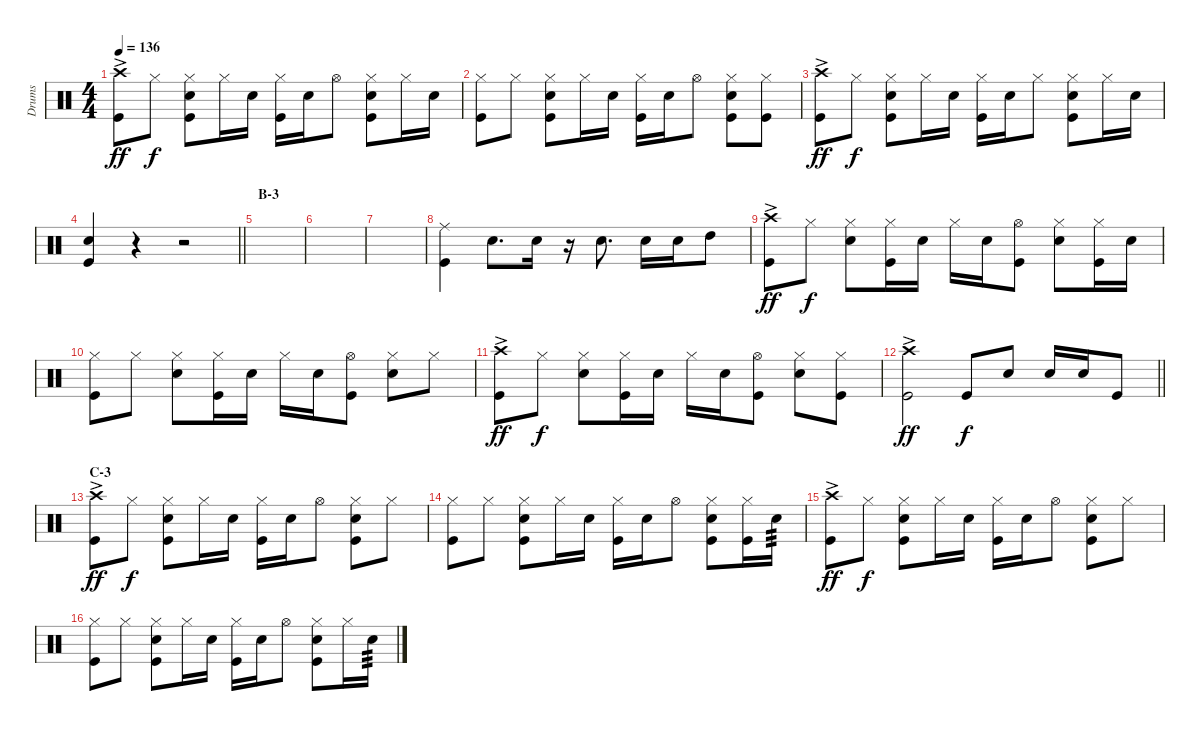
\track ("Drums" "Drums") {instrument percussion}
\staff {score}
\articulation defaults
\ts (4 4)
\tempo 136
\clef neutral
\ks c
("Crash high (hit)"{ac} "Kick (hit)").8{dy ff} "Hi-Hat (closed)".8{dy f} ("Hi-Hat (closed)" "Snare (hit) 2" "Kick (hit)").8 "Hi-Hat (closed)".16 "Snare (hit) 2".16 ("Hi-Hat (closed)" "Kick (hit)").16 "Snare (hit) 2".16 "Hi-Hat (open)".8 ("Hi-Hat (closed)" "Snare (hit) 2" "Kick (hit)").8 "Hi-Hat (closed)".16 "Snare (hit) 2".16 |
("Hi-Hat (closed)" "Kick (hit)").8 "Hi-Hat (closed)".8 ("Hi-Hat (closed)" "Snare (hit) 2" "Kick (hit)").8 "Hi-Hat (closed)".16 "Snare (hit) 2".16 ("Hi-Hat (closed)" "Kick (hit)").16 "Snare (hit) 2".16 "Hi-Hat (open)".8 ("Hi-Hat (closed)" "Snare (hit) 2" "Kick (hit)").8 ("Hi-Hat (closed)" "Kick (hit)").8 |
("Crash high (hit)"{ac} "Kick (hit)").8{dy ff} "Hi-Hat (closed)".8{dy f} ("Hi-Hat (closed)" "Snare (hit) 2" "Kick (hit)").8 "Hi-Hat (closed)".16 "Snare (hit) 2".16 ("Hi-Hat (closed)" "Kick (hit)").16 "Snare (hit) 2".16 "Hi-Hat (closed)".8 ("Hi-Hat (closed)" "Snare (hit) 2" "Kick (hit)").8 "Hi-Hat (closed)".16 "Snare (hit) 2".16 |
\barLineRight lightlight
("Snare (hit) 2" "Kick (hit)").4 r.4 r.2 |
\section ("" "B-3")
|
|
|
("Ride (middle)" "Kick (hit)").4 "Snare (hit) 2".8{d} "Snare (hit) 2".16 r.16 "Snare (hit) 2".8{d} "Snare (hit) 2".16 "Snare (hit) 2".16 "High Tom (hit)".8 |
("Crash high (hit)"{ac} "Kick (hit)").8{dy ff} "Hi-Hat (closed)".8{dy f} ("Hi-Hat (closed)" "Snare (hit) 2").8 ("Hi-Hat (closed)" "Kick (hit)").16 "Snare (hit) 2".16 "Hi-Hat (closed)".16 "Snare (hit) 2".16 ("Hi-Hat (open)" "Kick (hit)").8 ("Hi-Hat (closed)" "Snare (hit) 2").8 ("Hi-Hat (closed)" "Kick (hit)").16 "Snare (hit) 2".16 |
("Hi-Hat (closed)" "Kick (hit)").8 "Hi-Hat (closed)".8 ("Hi-Hat (closed)" "Snare (hit) 2").8 ("Hi-Hat (closed)" "Kick (hit)").16 "Snare (hit) 2".16 "Hi-Hat (closed)".16 "Snare (hit) 2".16 ("Hi-Hat (open)" "Kick (hit)").8 ("Hi-Hat (closed)" "Snare (hit) 2").8 "Hi-Hat (closed)".8 |
("Crash high (hit)"{ac} "Kick (hit)").8{dy ff} "Hi-Hat (closed)".8{dy f} ("Hi-Hat (closed)" "Snare (hit) 2").8 ("Hi-Hat (closed)" "Kick (hit)").16 "Snare (hit) 2".16 "Hi-Hat (closed)".16 "Snare (hit) 2".16 ("Hi-Hat (open)" "Kick (hit)").8 ("Hi-Hat (closed)" "Snare (hit) 2").8 ("Hi-Hat (closed)" "Kick (hit)").8 |
\barLineRight lightlight
("Crash high (hit)"{ac} "Kick (hit)").2{dy ff} "Kick (hit)".8{dy f} "Snare (hit) 2".8 "Snare (hit) 2".16 "Snare (hit) 2".16 "Kick (hit)".8 |
\section ("" "C-3")
("Crash high (hit)"{ac} "Kick (hit)").8{dy ff} "Hi-Hat (closed)".8{dy f} ("Hi-Hat (closed)" "Snare (hit) 2" "Kick (hit)").8 "Hi-Hat (closed)".16 "Snare (hit) 2".16 ("Hi-Hat (closed)" "Kick (hit)").16 "Snare (hit) 2".16 "Hi-Hat (open)".8 ("Hi-Hat (closed)" "Snare (hit) 2" "Kick (hit)").8 "Hi-Hat (closed)".8 |
("Hi-Hat (closed)" "Kick (hit)").8 "Hi-Hat (closed)".8 ("Hi-Hat (closed)" "Snare (hit) 2" "Kick (hit)").8 "Hi-Hat (closed)".16 "Snare (hit) 2".16 ("Hi-Hat (closed)" "Kick (hit)").16 "Snare (hit) 2".16 "Hi-Hat (open)".8 ("Hi-Hat (closed)" "Snare (hit) 2" "Kick (hit)").8 ("Hi-Hat (closed)" "Kick (hit)").16 "Snare (hit) 2".16{tp 3} |
("Crash high (hit)"{ac} "Kick (hit)").8{dy ff} "Hi-Hat (closed)".8{dy f} ("Hi-Hat (closed)" "Snare (hit) 2" "Kick (hit)").8 "Hi-Hat (closed)".16 "Snare (hit) 2".16 ("Hi-Hat (closed)" "Kick (hit)").16 "Snare (hit) 2".16 "Hi-Hat (open)".8 ("Hi-Hat (closed)" "Snare (hit) 2" "Kick (hit)").8 "Hi-Hat (closed)".8 |
("Hi-Hat (closed)" "Kick (hit)").8 "Hi-Hat (closed)".8 ("Hi-Hat (closed)" "Snare (hit) 2" "Kick (hit)").8 "Hi-Hat (closed)".16 "Snare (hit) 2".16 ("Hi-Hat (closed)" "Kick (hit)").16 "Snare (hit) 2".16 "Hi-Hat (open)".8 ("Hi-Hat (closed)" "Snare (hit) 2" "Kick (hit)").8 "Hi-Hat (closed)".16 "Snare (hit) 2".16{tp 3}
